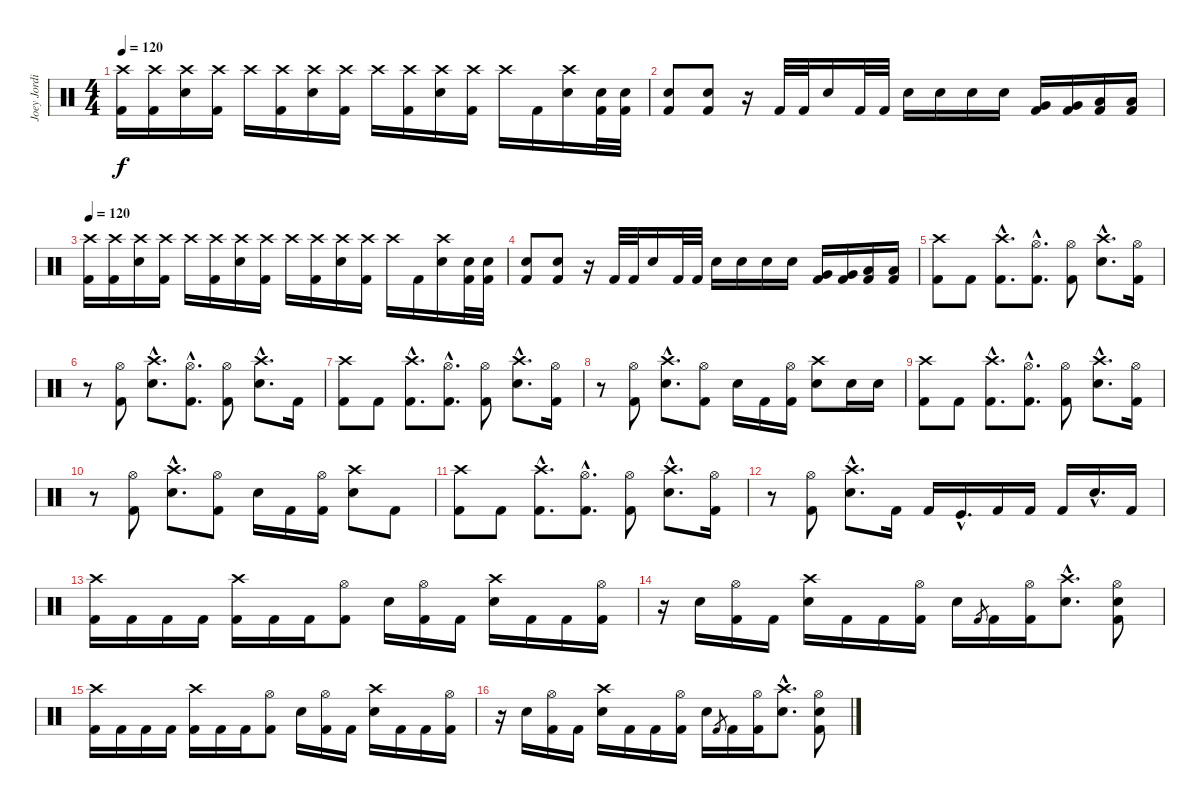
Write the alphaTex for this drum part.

\track ("Joey Jordison   #1" "Joey Jordi") {instrument percussion}
\staff {score}
\articulation defaults
\ts (4 4)
\tempo 120
\clef neutral
\ks c
("Crash high (hit)" "Kick (hit) 2").16{dy f} ("Crash high (hit)" "Kick (hit) 2").16 ("Crash high (hit)" "Electric Snare (hit)").16 ("Crash high (hit)" "Kick (hit) 2").16 "Crash high (hit)".16 ("Crash high (hit)" "Kick (hit) 2").16 ("Crash high (hit)" "Electric Snare (hit)").16 ("Crash high (hit)" "Kick (hit) 2").16 "Crash high (hit)".16 ("Crash high (hit)" "Kick (hit) 2").16 ("Crash high (hit)" "Electric Snare (hit)").16 ("Crash high (hit)" "Kick (hit) 2").16 "Crash high (hit)".16 "Kick (hit) 2".16 ("Crash high (hit)" "Electric Snare (hit)").16 ("Electric Snare (hit)" "Kick (hit) 2").32 ("Electric Snare (hit)" "Kick (hit) 2").32 |
("Electric Snare (hit)" "Kick (hit) 2").8 ("Electric Snare (hit)" "Kick (hit) 2").8 r.16 "Kick (hit) 2".32 "Kick (hit) 2".32 "Electric Snare (hit)".16 "Kick (hit) 2".32 "Kick (hit) 2".32 "Electric Snare (hit)".16 "Electric Snare (hit)".16 "Snare (hit) 2".16 "Snare (hit) 2".16 ("Very Low Tom (hit)" "Kick (hit) 2").16 ("Very Low Tom (hit)" "Kick (hit) 2").16 ("Low Floor Tom (hit)" "Kick (hit) 2").16 ("Low Floor Tom (hit)" "Kick (hit) 2").16 |
\tempo 120
("Crash high (hit)" "Kick (hit) 2").16 ("Crash high (hit)" "Kick (hit) 2").16 ("Crash high (hit)" "Electric Snare (hit)").16 ("Crash high (hit)" "Kick (hit) 2").16 "Crash high (hit)".16 ("Crash high (hit)" "Kick (hit) 2").16 ("Crash high (hit)" "Electric Snare (hit)").16 ("Crash high (hit)" "Kick (hit) 2").16 "Crash high (hit)".16 ("Crash high (hit)" "Kick (hit) 2").16 ("Crash high (hit)" "Electric Snare (hit)").16 ("Crash high (hit)" "Kick (hit) 2").16 "Crash high (hit)".16 "Kick (hit) 2".16 ("Crash high (hit)" "Electric Snare (hit)").16 ("Electric Snare (hit)" "Kick (hit) 2").32 ("Electric Snare (hit)" "Kick (hit) 2").32 |
("Electric Snare (hit)" "Kick (hit) 2").8 ("Electric Snare (hit)" "Kick (hit) 2").8 r.16 "Kick (hit) 2".32 "Kick (hit) 2".32 "Electric Snare (hit)".16 "Kick (hit) 2".32 "Kick (hit) 2".32 "Electric Snare (hit)".16 "Electric Snare (hit)".16 "Snare (hit) 2".16 "Snare (hit) 2".16 ("Very Low Tom (hit)" "Kick (hit) 2").16 ("Very Low Tom (hit)" "Kick (hit) 2").16 ("Low Floor Tom (hit)" "Kick (hit) 2").16 ("Low Floor Tom (hit)" "Kick (hit) 2").16 |
("Crash high (hit)" "Kick (hit) 2").8 "Kick (hit) 2".8 ("Crash high (hit)"{hac} "Kick (hit) 2"{hac}).8{d} ("Hi-Hat (open)"{hac} "Kick (hit) 2"{hac}).8{d} ("Hi-Hat (open)" "Kick (hit) 2").8 ("Crash high (hit)"{hac} "Electric Snare (hit)"{hac}).8{d} ("Hi-Hat (open)" "Kick (hit) 2").16 |
r.8 ("Hi-Hat (open)" "Kick (hit) 2").8 ("Crash high (hit)"{hac} "Electric Snare (hit)"{hac}).8{d} ("Hi-Hat (open)"{hac} "Kick (hit) 2"{hac}).8{d} ("Hi-Hat (open)" "Kick (hit) 2").8 ("Crash high (hit)"{hac} "Electric Snare (hit)"{hac}).8{d} "Kick (hit) 2".16 |
("Crash high (hit)" "Kick (hit) 2").8 "Kick (hit) 2".8 ("Crash high (hit)"{hac} "Kick (hit) 2"{hac}).8{d} ("Hi-Hat (open)"{hac} "Kick (hit) 2"{hac}).8{d} ("Hi-Hat (open)" "Kick (hit) 2").8 ("Crash high (hit)"{hac} "Electric Snare (hit)"{hac}).8{d} ("Hi-Hat (open)" "Kick (hit) 2").16 |
r.8 ("Hi-Hat (open)" "Kick (hit) 2").8 ("Crash high (hit)"{hac} "Electric Snare (hit)"{hac}).8{d} ("Hi-Hat (open)" "Kick (hit) 2").8 "Electric Snare (hit)".16 "Kick (hit) 2".16 ("Hi-Hat (open)" "Kick (hit) 2").16 ("Crash high (hit)" "Electric Snare (hit)").8 "Electric Snare (hit)".16 "Electric Snare (hit)".16 |
("Crash high (hit)" "Kick (hit) 2").8 "Kick (hit) 2".8 ("Crash high (hit)"{hac} "Kick (hit) 2"{hac}).8{d} ("Hi-Hat (open)"{hac} "Kick (hit) 2"{hac}).8{d} ("Hi-Hat (open)" "Kick (hit) 2").8 ("Crash high (hit)"{hac} "Electric Snare (hit)"{hac}).8{d} ("Hi-Hat (open)" "Kick (hit) 2").16 |
r.8 ("Hi-Hat (open)" "Kick (hit) 2").8 ("Crash high (hit)"{hac} "Electric Snare (hit)"{hac}).8{d} ("Hi-Hat (open)" "Kick (hit) 2").8 "Electric Snare (hit)".16 "Kick (hit) 2".16 ("Hi-Hat (open)" "Kick (hit) 2").16 ("Crash high (hit)" "Electric Snare (hit)").8 "Kick (hit) 2".8 |
("Crash high (hit)" "Kick (hit) 2").8 "Kick (hit) 2".8 ("Crash high (hit)"{hac} "Kick (hit) 2"{hac}).8{d} ("Hi-Hat (open)"{hac} "Kick (hit) 2"{hac}).8{d} ("Hi-Hat (open)" "Kick (hit) 2").8 ("Crash high (hit)"{hac} "Electric Snare (hit)"{hac}).8{d} ("Hi-Hat (open)" "Kick (hit) 2").16 |
r.8 ("Hi-Hat (open)" "Kick (hit) 2").8 ("Crash high (hit)"{hac} "Electric Snare (hit)"{hac}).8{d} "Kick (hit) 2".16 "Kick (hit) 2".16 "Kick (hit)"{hac}.16{d} "Kick (hit) 2".16 "Kick (hit) 2".16 "Kick (hit) 2".16 "Electric Snare (hit)"{hac}.16{d} "Kick (hit) 2".16 |
("Crash high (hit)" "Kick (hit) 2").16 "Kick (hit) 2".16 "Kick (hit) 2".16 "Kick (hit) 2".16 ("Crash high (hit)" "Kick (hit) 2").16 "Kick (hit) 2".16 "Kick (hit) 2".16 ("Hi-Hat (open)" "Kick (hit) 2").8 "Electric Snare (hit)".16 ("Hi-Hat (open)" "Kick (hit) 2").16 "Kick (hit) 2".16 ("Crash high (hit)" "Electric Snare (hit)").16 "Kick (hit) 2".16 "Kick (hit) 2".16 ("Hi-Hat (open)" "Kick (hit) 2").16 |
r.16 "Electric Snare (hit)".16 ("Hi-Hat (open)" "Kick (hit) 2").16 "Kick (hit) 2".16 ("Crash high (hit)" "Electric Snare (hit)").16 "Kick (hit) 2".16 "Kick (hit) 2".16 ("Hi-Hat (open)" "Kick (hit) 2").16 "Electric Snare (hit)".16 "Kick (hit) 2".8{gr} "Kick (hit) 2".16 ("Hi-Hat (open)" "Kick (hit) 2").16 ("Crash high (hit)"{hac} "Electric Snare (hit)"{hac}).8{d} ("Hi-Hat (open)" "Electric Snare (hit)" "Kick (hit) 2").8 |
("Crash high (hit)" "Kick (hit) 2").16 "Kick (hit) 2".16 "Kick (hit) 2".16 "Kick (hit) 2".16 ("Crash high (hit)" "Kick (hit) 2").16 "Kick (hit) 2".16 "Kick (hit) 2".16 ("Hi-Hat (open)" "Kick (hit) 2").8 "Electric Snare (hit)".16 ("Hi-Hat (open)" "Kick (hit) 2").16 "Kick (hit) 2".16 ("Crash high (hit)" "Electric Snare (hit)").16 "Kick (hit) 2".16 "Kick (hit) 2".16 ("Hi-Hat (open)" "Kick (hit) 2").16 |
r.16 "Electric Snare (hit)".16 ("Hi-Hat (open)" "Kick (hit) 2").16 "Kick (hit) 2".16 ("Crash high (hit)" "Electric Snare (hit)").16 "Kick (hit) 2".16 "Kick (hit) 2".16 ("Hi-Hat (open)" "Kick (hit) 2").16 "Electric Snare (hit)".16 "Kick (hit) 2".8{gr} "Kick (hit) 2".16 ("Hi-Hat (open)" "Kick (hit) 2").16 ("Crash high (hit)"{hac} "Electric Snare (hit)"{hac}).8{d} ("Hi-Hat (open)" "Electric Snare (hit)" "Kick (hit) 2").8
